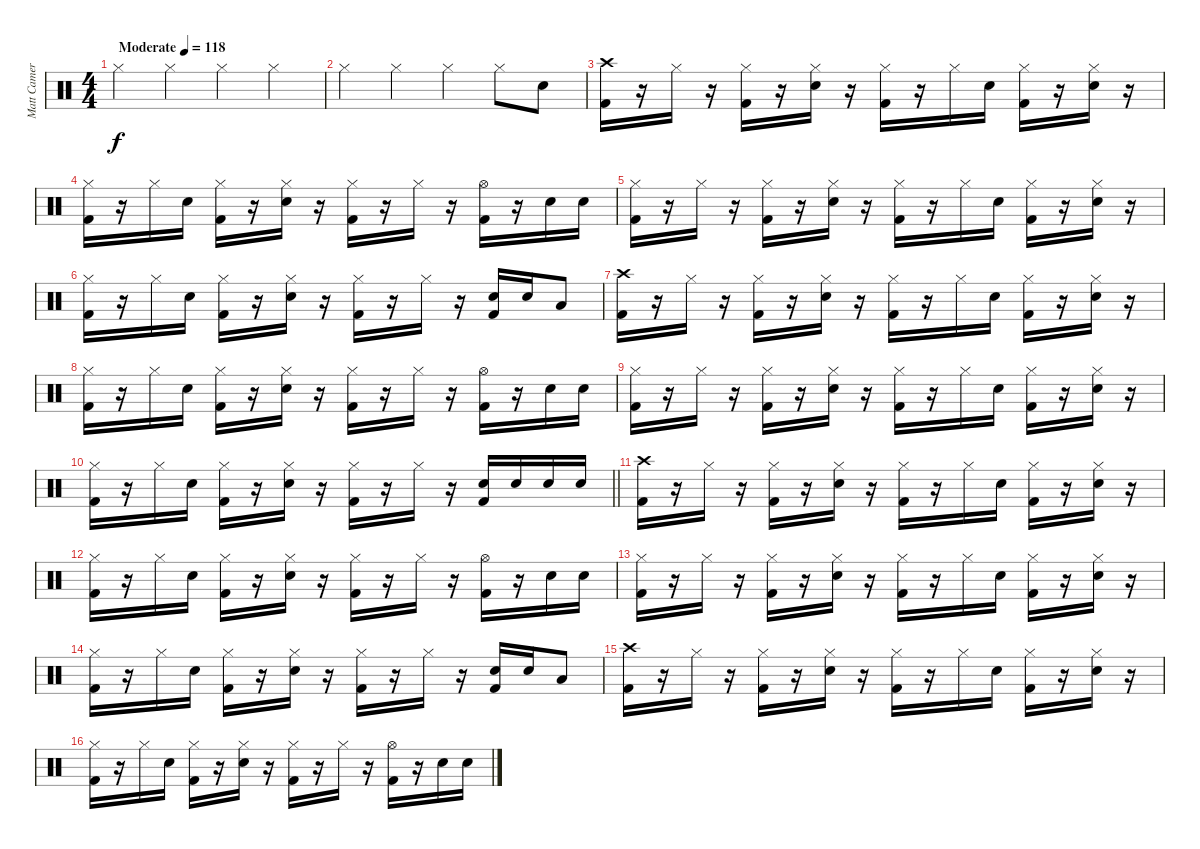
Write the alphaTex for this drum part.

\track ("Matt Cameron" "Matt Camer") {instrument percussion}
\staff {score}
\articulation defaults
\ts (4 4)
\tempo (118 "Moderate")
\clef neutral
\ks c "Hi-Hat (closed)".4{dy f} "Hi-Hat (closed)".4 "Hi-Hat (closed)".4 "Hi-Hat (closed)".4
|
"Hi-Hat (closed)".4 "Hi-Hat (closed)".4 "Hi-Hat (closed)".4 "Hi-Hat (closed)".8 "Snare (hit) 2".8 |
("Crash high (hit)" "Kick (hit) 2").16 r.16 "Hi-Hat (closed)".16 r.16 ("Hi-Hat (closed)" "Kick (hit) 2").16 r.16 ("Hi-Hat (closed)" "Snare (hit) 2").16 r.16 ("Hi-Hat (closed)" "Kick (hit) 2").16 r.16 "Hi-Hat (closed)".16 "Snare (hit) 2".16 ("Hi-Hat (closed)" "Kick (hit) 2").16 r.16 ("Hi-Hat (closed)" "Snare (hit) 2").16 r.16 |
("Hi-Hat (closed)" "Kick (hit) 2").16 r.16 "Hi-Hat (closed)".16 "Snare (hit) 2".16 ("Hi-Hat (closed)" "Kick (hit) 2").16 r.16 ("Hi-Hat (closed)" "Snare (hit) 2").16 r.16 ("Hi-Hat (closed)" "Kick (hit) 2").16 r.16 "Hi-Hat (closed)".16 r.16 ("Hi-Hat (open)" "Kick (hit) 2").16 r.16 "Snare (hit) 2".16 "Snare (hit) 2".16 |
("Hi-Hat (closed)" "Kick (hit) 2").16 r.16 "Hi-Hat (closed)".16 r.16 ("Hi-Hat (closed)" "Kick (hit) 2").16 r.16 ("Hi-Hat (closed)" "Snare (hit) 2").16 r.16 ("Hi-Hat (closed)" "Kick (hit) 2").16 r.16 "Hi-Hat (closed)".16 "Snare (hit) 2".16 ("Hi-Hat (closed)" "Kick (hit) 2").16 r.16 ("Hi-Hat (closed)" "Snare (hit) 2").16 r.16 |
("Hi-Hat (closed)" "Kick (hit) 2").16 r.16 "Hi-Hat (closed)".16 "Snare (hit) 2".16 ("Hi-Hat (closed)" "Kick (hit) 2").16 r.16 ("Hi-Hat (closed)" "Snare (hit) 2").16 r.16 ("Hi-Hat (closed)" "Kick (hit) 2").16 r.16 "Hi-Hat (closed)".16 r.16 ("Snare (hit) 2" "Kick (hit) 2").16 "Snare (hit) 2".16 "Low Tom (hit)".8 |
("Crash high (hit)" "Kick (hit) 2").16 r.16 "Hi-Hat (closed)".16 r.16 ("Hi-Hat (closed)" "Kick (hit) 2").16 r.16 ("Hi-Hat (closed)" "Snare (hit) 2").16 r.16 ("Hi-Hat (closed)" "Kick (hit) 2").16 r.16 "Hi-Hat (closed)".16 "Snare (hit) 2".16 ("Hi-Hat (closed)" "Kick (hit) 2").16 r.16 ("Hi-Hat (closed)" "Snare (hit) 2").16 r.16 |
("Hi-Hat (closed)" "Kick (hit) 2").16 r.16 "Hi-Hat (closed)".16 "Snare (hit) 2".16 ("Hi-Hat (closed)" "Kick (hit) 2").16 r.16 ("Hi-Hat (closed)" "Snare (hit) 2").16 r.16 ("Hi-Hat (closed)" "Kick (hit) 2").16 r.16 "Hi-Hat (closed)".16 r.16 ("Hi-Hat (open)" "Kick (hit) 2").16 r.16 "Snare (hit) 2".16 "Snare (hit) 2".16 |
("Hi-Hat (closed)" "Kick (hit) 2").16 r.16 "Hi-Hat (closed)".16 r.16 ("Hi-Hat (closed)" "Kick (hit) 2").16 r.16 ("Hi-Hat (closed)" "Snare (hit) 2").16 r.16 ("Hi-Hat (closed)" "Kick (hit) 2").16 r.16 "Hi-Hat (closed)".16 "Snare (hit) 2".16 ("Hi-Hat (closed)" "Kick (hit) 2").16 r.16 ("Hi-Hat (closed)" "Snare (hit) 2").16 r.16 |
\barLineRight lightlight
("Hi-Hat (closed)" "Kick (hit) 2").16 r.16 "Hi-Hat (closed)".16 "Snare (hit) 2".16 ("Hi-Hat (closed)" "Kick (hit) 2").16 r.16 ("Hi-Hat (closed)" "Snare (hit) 2").16 r.16 ("Hi-Hat (closed)" "Kick (hit) 2").16 r.16 "Hi-Hat (closed)".16 r.16 ("Snare (hit) 2" "Kick (hit) 2").16 "Snare (hit) 2".16 "Snare (hit) 2".16 "Snare (hit) 2".16 |
("Crash high (hit)" "Kick (hit) 2").16 r.16 "Hi-Hat (closed)".16 r.16 ("Hi-Hat (closed)" "Kick (hit) 2").16 r.16 ("Hi-Hat (closed)" "Snare (hit) 2").16 r.16 ("Hi-Hat (closed)" "Kick (hit) 2").16 r.16 "Hi-Hat (closed)".16 "Snare (hit) 2".16 ("Hi-Hat (closed)" "Kick (hit) 2").16 r.16 ("Hi-Hat (closed)" "Snare (hit) 2").16 r.16 |
("Hi-Hat (closed)" "Kick (hit) 2").16 r.16 "Hi-Hat (closed)".16 "Snare (hit) 2".16 ("Hi-Hat (closed)" "Kick (hit) 2").16 r.16 ("Hi-Hat (closed)" "Snare (hit) 2").16 r.16 ("Hi-Hat (closed)" "Kick (hit) 2").16 r.16 "Hi-Hat (closed)".16 r.16 ("Hi-Hat (open)" "Kick (hit) 2").16 r.16 "Snare (hit) 2".16 "Snare (hit) 2".16 |
("Hi-Hat (closed)" "Kick (hit) 2").16 r.16 "Hi-Hat (closed)".16 r.16 ("Hi-Hat (closed)" "Kick (hit) 2").16 r.16 ("Hi-Hat (closed)" "Snare (hit) 2").16 r.16 ("Hi-Hat (closed)" "Kick (hit) 2").16 r.16 "Hi-Hat (closed)".16 "Snare (hit) 2".16 ("Hi-Hat (closed)" "Kick (hit) 2").16 r.16 ("Hi-Hat (closed)" "Snare (hit) 2").16 r.16 |
("Hi-Hat (closed)" "Kick (hit) 2").16 r.16 "Hi-Hat (closed)".16 "Snare (hit) 2".16 ("Hi-Hat (closed)" "Kick (hit) 2").16 r.16 ("Hi-Hat (closed)" "Snare (hit) 2").16 r.16 ("Hi-Hat (closed)" "Kick (hit) 2").16 r.16 "Hi-Hat (closed)".16 r.16 ("Snare (hit) 2" "Kick (hit) 2").16 "Snare (hit) 2".16 "Low Tom (hit)".8 |
("Crash high (hit)" "Kick (hit) 2").16 r.16 "Hi-Hat (closed)".16 r.16 ("Hi-Hat (closed)" "Kick (hit) 2").16 r.16 ("Hi-Hat (closed)" "Snare (hit) 2").16 r.16 ("Hi-Hat (closed)" "Kick (hit) 2").16 r.16 "Hi-Hat (closed)".16 "Snare (hit) 2".16 ("Hi-Hat (closed)" "Kick (hit) 2").16 r.16 ("Hi-Hat (closed)" "Snare (hit) 2").16 r.16 |
("Hi-Hat (closed)" "Kick (hit) 2").16 r.16 "Hi-Hat (closed)".16 "Snare (hit) 2".16 ("Hi-Hat (closed)" "Kick (hit) 2").16 r.16 ("Hi-Hat (closed)" "Snare (hit) 2").16 r.16 ("Hi-Hat (closed)" "Kick (hit) 2").16 r.16 "Hi-Hat (closed)".16 r.16 ("Hi-Hat (open)" "Kick (hit) 2").16 r.16 "Snare (hit) 2".16 "Snare (hit) 2".16
